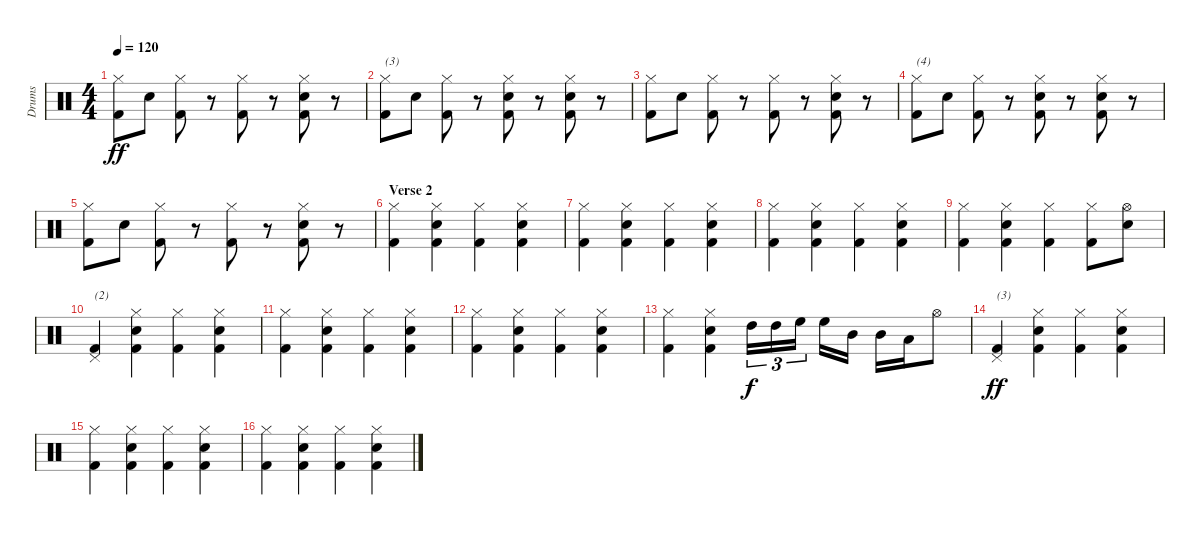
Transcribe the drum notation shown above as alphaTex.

\track ("Drums" "Drums") {instrument percussion}
\staff {score}
\articulation defaults
\ts (4 4)
\tempo 120
\clef neutral
\ks c
("Hi-Hat (closed)" "Kick (hit) 2").8{dy ff} "Snare (hit) 2".8 ("Hi-Hat (closed)" "Kick (hit) 2").8 r.8 ("Hi-Hat (closed)" "Kick (hit) 2").8 r.8 ("Hi-Hat (closed)" "Snare (hit) 2" "Kick (hit) 2").8 r.8 |
("Hi-Hat (closed)" "Kick (hit) 2").8{txt "(3)"} "Snare (hit) 2".8 ("Hi-Hat (closed)" "Kick (hit) 2").8 r.8 ("Hi-Hat (closed)" "Snare (hit) 2" "Kick (hit) 2").8 r.8 ("Hi-Hat (closed)" "Snare (hit) 2" "Kick (hit) 2").8 r.8 |
("Hi-Hat (closed)" "Kick (hit) 2").8 "Snare (hit) 2".8 ("Hi-Hat (closed)" "Kick (hit) 2").8 r.8 ("Hi-Hat (closed)" "Kick (hit) 2").8 r.8 ("Hi-Hat (closed)" "Snare (hit) 2" "Kick (hit) 2").8 r.8 |
("Hi-Hat (closed)" "Kick (hit) 2").8{txt "(4)"} "Snare (hit) 2".8 ("Hi-Hat (closed)" "Kick (hit) 2").8 r.8 ("Hi-Hat (closed)" "Snare (hit) 2" "Kick (hit) 2").8 r.8 ("Hi-Hat (closed)" "Snare (hit) 2" "Kick (hit) 2").8 r.8 |
("Hi-Hat (closed)" "Kick (hit) 2").8 "Snare (hit) 2".8 ("Hi-Hat (closed)" "Kick (hit) 2").8 r.8 ("Hi-Hat (closed)" "Kick (hit) 2").8 r.8 ("Hi-Hat (closed)" "Snare (hit) 2" "Kick (hit) 2").8 r.8 |
\section ("" "Verse 2")
("Hi-Hat (closed)" "Kick (hit) 2").4 ("Hi-Hat (closed)" "Snare (hit) 2" "Kick (hit) 2").4 ("Hi-Hat (closed)" "Kick (hit) 2").4 ("Hi-Hat (closed)" "Snare (hit) 2" "Kick (hit) 2").4 |
("Hi-Hat (closed)" "Kick (hit) 2").4 ("Hi-Hat (closed)" "Snare (hit) 2" "Kick (hit) 2").4 ("Hi-Hat (closed)" "Kick (hit) 2").4 ("Hi-Hat (closed)" "Snare (hit) 2" "Kick (hit) 2").4 |
("Hi-Hat (closed)" "Kick (hit) 2").4 ("Hi-Hat (closed)" "Snare (hit) 2" "Kick (hit) 2").4 ("Hi-Hat (closed)" "Kick (hit) 2").4 ("Hi-Hat (closed)" "Snare (hit) 2" "Kick (hit) 2").4 |
("Hi-Hat (closed)" "Kick (hit) 2").4 ("Hi-Hat (closed)" "Snare (hit) 2" "Kick (hit) 2").4 ("Hi-Hat (closed)" "Kick (hit) 2").4 ("Hi-Hat (closed)" "Kick (hit) 2").8 ("Hi-Hat (open)" "Snare (hit) 2").8 |
("Pedal Hi-Hat (hit)" "Kick (hit) 2").4{txt "(2)"} ("Hi-Hat (closed)" "Snare (hit) 2" "Kick (hit) 2").4 ("Hi-Hat (closed)" "Kick (hit) 2").4 ("Hi-Hat (closed)" "Snare (hit) 2" "Kick (hit) 2").4 |
("Hi-Hat (closed)" "Kick (hit) 2").4 ("Hi-Hat (closed)" "Snare (hit) 2" "Kick (hit) 2").4 ("Hi-Hat (closed)" "Kick (hit) 2").4 ("Hi-Hat (closed)" "Snare (hit) 2" "Kick (hit) 2").4 |
("Hi-Hat (closed)" "Kick (hit) 2").4 ("Hi-Hat (closed)" "Snare (hit) 2" "Kick (hit) 2").4 ("Hi-Hat (closed)" "Kick (hit) 2").4 ("Hi-Hat (closed)" "Snare (hit) 2" "Kick (hit) 2").4 |
("Hi-Hat (closed)" "Kick (hit) 2").4 ("Hi-Hat (closed)" "Snare (hit) 2" "Kick (hit) 2").4 "High Tom (hit)".16{tu (3 2) dy f} "High Tom (hit)".16{tu (3 2)} "High Floor Tom (hit)".16{tu (3 2)} "High Floor Tom (hit)".16 "Mid Tom (hit)".16 "Mid Tom (hit)".16 "Low Tom (hit)".16 "Hi-Hat (open)".8 |
("Pedal Hi-Hat (hit)" "Kick (hit) 2").4{txt "(3)" dy ff} ("Hi-Hat (closed)" "Snare (hit) 2" "Kick (hit) 2").4 ("Hi-Hat (closed)" "Kick (hit) 2").4 ("Hi-Hat (closed)" "Snare (hit) 2" "Kick (hit) 2").4 |
("Hi-Hat (closed)" "Kick (hit) 2").4 ("Hi-Hat (closed)" "Snare (hit) 2" "Kick (hit) 2").4 ("Hi-Hat (closed)" "Kick (hit) 2").4 ("Hi-Hat (closed)" "Snare (hit) 2" "Kick (hit) 2").4 |
("Hi-Hat (closed)" "Kick (hit) 2").4 ("Hi-Hat (closed)" "Snare (hit) 2" "Kick (hit) 2").4 ("Hi-Hat (closed)" "Kick (hit) 2").4 ("Hi-Hat (closed)" "Snare (hit) 2" "Kick (hit) 2").4
